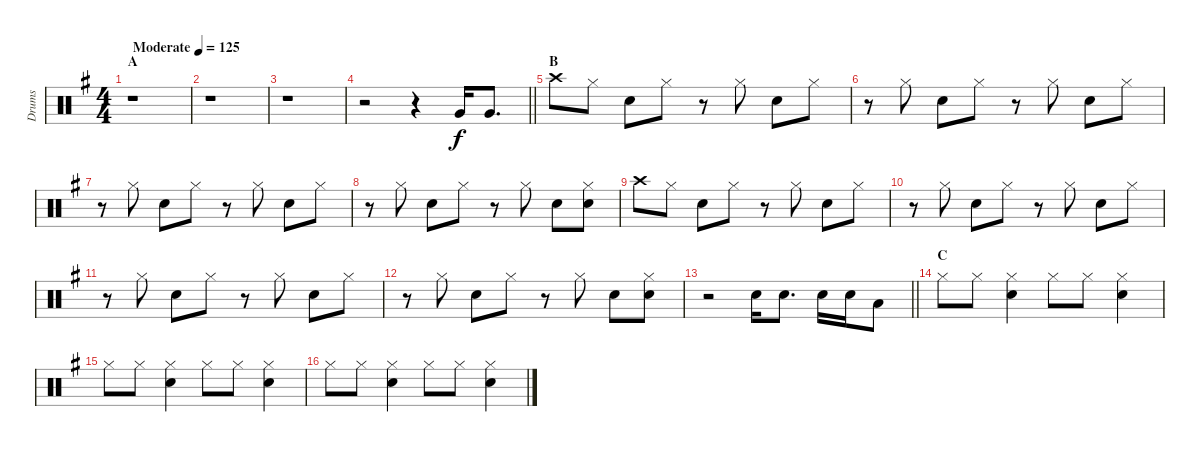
\track ("Drums" "Drums") {instrument percussion}
\staff {score}
\articulation defaults
\ts (4 4)
\section ("" "A")
\tempo (125 "Moderate")
\clef neutral
\ks g
r.1{dy f} |
r.1 |
r.1 |
\barLineRight lightlight
r.2 r.4 "Very Low Tom (hit)".16 "Very Low Tom (hit)".8{d} |
\section ("" "B")
"Crash high (hit)".8 "Hi-Hat (closed)".8 "Snare (hit) 2".8 "Hi-Hat (closed)".8 r.8 "Hi-Hat (closed)".8 "Snare (hit) 2".8 "Hi-Hat (closed)".8 |
r.8 "Hi-Hat (closed)".8 "Snare (hit) 2".8 "Hi-Hat (closed)".8 r.8 "Hi-Hat (closed)".8 "Snare (hit) 2".8 "Hi-Hat (closed)".8 |
r.8 "Hi-Hat (closed)".8 "Snare (hit) 2".8 "Hi-Hat (closed)".8 r.8 "Hi-Hat (closed)".8 "Snare (hit) 2".8 "Hi-Hat (closed)".8 |
r.8 "Hi-Hat (closed)".8 "Snare (hit) 2".8 "Hi-Hat (closed)".8 r.8 "Hi-Hat (closed)".8 "Snare (hit) 2".8 ("Hi-Hat (closed)" "Snare (hit) 2").8 |
"Crash high (hit)".8 "Hi-Hat (closed)".8 "Snare (hit) 2".8 "Hi-Hat (closed)".8 r.8 "Hi-Hat (closed)".8 "Snare (hit) 2".8 "Hi-Hat (closed)".8 |
r.8 "Hi-Hat (closed)".8 "Snare (hit) 2".8 "Hi-Hat (closed)".8 r.8 "Hi-Hat (closed)".8 "Snare (hit) 2".8 "Hi-Hat (closed)".8 |
r.8 "Hi-Hat (closed)".8 "Snare (hit) 2".8 "Hi-Hat (closed)".8 r.8 "Hi-Hat (closed)".8 "Snare (hit) 2".8 "Hi-Hat (closed)".8 |
r.8 "Hi-Hat (closed)".8 "Snare (hit) 2".8 "Hi-Hat (closed)".8 r.8 "Hi-Hat (closed)".8 "Snare (hit) 2".8 ("Hi-Hat (closed)" "Snare (hit) 2").8 |
\barLineRight lightlight
r.2 "Snare (hit) 2".16 "Snare (hit) 2".8{d} "Snare (hit) 2".16 "Snare (hit) 2".16 "Low Tom (hit)".8 |
\section ("" "C")
"Hi-Hat (closed)".8 "Hi-Hat (closed)".8 ("Hi-Hat (closed)" "Snare (hit) 2").4 "Hi-Hat (closed)".8 "Hi-Hat (closed)".8 ("Hi-Hat (closed)" "Snare (hit) 2").4 |
"Hi-Hat (closed)".8 "Hi-Hat (closed)".8 ("Hi-Hat (closed)" "Snare (hit) 2").4 "Hi-Hat (closed)".8 "Hi-Hat (closed)".8 ("Hi-Hat (closed)" "Snare (hit) 2").4 |
"Hi-Hat (closed)".8 "Hi-Hat (closed)".8 ("Hi-Hat (closed)" "Snare (hit) 2").4 "Hi-Hat (closed)".8 "Hi-Hat (closed)".8 ("Hi-Hat (closed)" "Snare (hit) 2").4
